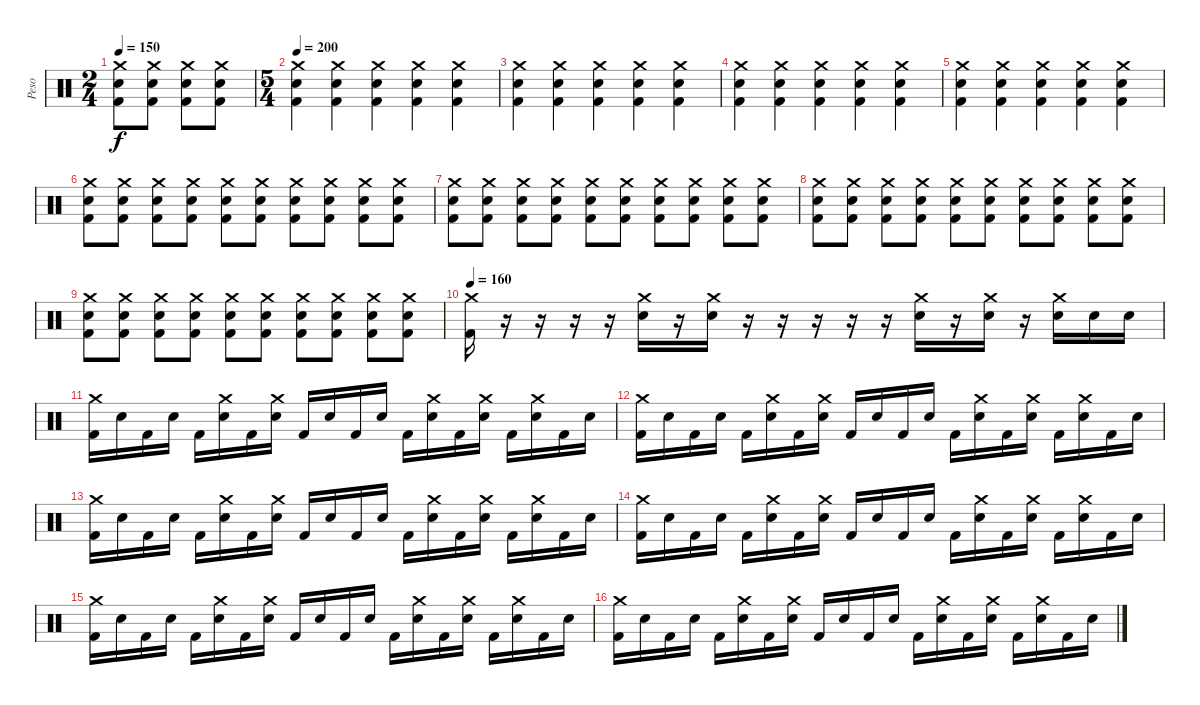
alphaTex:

\track ("Peso" "Peso") {instrument percussion}
\staff {score}
\articulation defaults
\ts (2 4)
\tempo 150
\clef neutral
\ks c
("Crash medium (hit)" "Electric Snare (hit)" "Kick (hit) 2").8{dy f} ("Crash medium (hit)" "Electric Snare (hit)" "Kick (hit) 2").8 ("Crash medium (hit)" "Electric Snare (hit)" "Kick (hit) 2").8 ("Crash medium (hit)" "Electric Snare (hit)" "Kick (hit) 2").8 |
\ts (5 4)
\tempo 200
("Crash medium (hit)" "Electric Snare (hit)" "Kick (hit) 2").4 ("Crash medium (hit)" "Electric Snare (hit)" "Kick (hit) 2").4 ("Crash medium (hit)" "Electric Snare (hit)" "Kick (hit) 2").4 ("Crash medium (hit)" "Electric Snare (hit)" "Kick (hit) 2").4 ("Crash medium (hit)" "Electric Snare (hit)" "Kick (hit) 2").4 |
("Crash medium (hit)" "Electric Snare (hit)" "Kick (hit) 2").4 ("Crash medium (hit)" "Electric Snare (hit)" "Kick (hit) 2").4 ("Crash medium (hit)" "Electric Snare (hit)" "Kick (hit) 2").4 ("Crash medium (hit)" "Electric Snare (hit)" "Kick (hit) 2").4 ("Crash medium (hit)" "Electric Snare (hit)" "Kick (hit) 2").4 |
("Crash medium (hit)" "Electric Snare (hit)" "Kick (hit) 2").4 ("Crash medium (hit)" "Electric Snare (hit)" "Kick (hit) 2").4 ("Crash medium (hit)" "Electric Snare (hit)" "Kick (hit) 2").4 ("Crash medium (hit)" "Electric Snare (hit)" "Kick (hit) 2").4 ("Crash medium (hit)" "Electric Snare (hit)" "Kick (hit) 2").4 |
("Crash medium (hit)" "Electric Snare (hit)" "Kick (hit) 2").4 ("Crash medium (hit)" "Electric Snare (hit)" "Kick (hit) 2").4 ("Crash medium (hit)" "Electric Snare (hit)" "Kick (hit) 2").4 ("Crash medium (hit)" "Electric Snare (hit)" "Kick (hit) 2").4 ("Crash medium (hit)" "Electric Snare (hit)" "Kick (hit) 2").4 |
("Crash medium (hit)" "Electric Snare (hit)" "Kick (hit) 2").8 ("Crash medium (hit)" "Electric Snare (hit)" "Kick (hit) 2").8 ("Crash medium (hit)" "Electric Snare (hit)" "Kick (hit) 2").8 ("Crash medium (hit)" "Electric Snare (hit)" "Kick (hit) 2").8 ("Crash medium (hit)" "Electric Snare (hit)" "Kick (hit) 2").8 ("Crash medium (hit)" "Electric Snare (hit)" "Kick (hit) 2").8 ("Crash medium (hit)" "Electric Snare (hit)" "Kick (hit) 2").8 ("Crash medium (hit)" "Electric Snare (hit)" "Kick (hit) 2").8 ("Crash medium (hit)" "Electric Snare (hit)" "Kick (hit) 2").8 ("Crash medium (hit)" "Electric Snare (hit)" "Kick (hit) 2").8 |
("Crash medium (hit)" "Electric Snare (hit)" "Kick (hit) 2").8 ("Crash medium (hit)" "Electric Snare (hit)" "Kick (hit) 2").8 ("Crash medium (hit)" "Electric Snare (hit)" "Kick (hit) 2").8 ("Crash medium (hit)" "Electric Snare (hit)" "Kick (hit) 2").8 ("Crash medium (hit)" "Electric Snare (hit)" "Kick (hit) 2").8 ("Crash medium (hit)" "Electric Snare (hit)" "Kick (hit) 2").8 ("Crash medium (hit)" "Electric Snare (hit)" "Kick (hit) 2").8 ("Crash medium (hit)" "Electric Snare (hit)" "Kick (hit) 2").8 ("Crash medium (hit)" "Electric Snare (hit)" "Kick (hit) 2").8 ("Crash medium (hit)" "Electric Snare (hit)" "Kick (hit) 2").8 |
("Crash medium (hit)" "Electric Snare (hit)" "Kick (hit) 2").8 ("Crash medium (hit)" "Electric Snare (hit)" "Kick (hit) 2").8 ("Crash medium (hit)" "Electric Snare (hit)" "Kick (hit) 2").8 ("Crash medium (hit)" "Electric Snare (hit)" "Kick (hit) 2").8 ("Crash medium (hit)" "Electric Snare (hit)" "Kick (hit) 2").8 ("Crash medium (hit)" "Electric Snare (hit)" "Kick (hit) 2").8 ("Crash medium (hit)" "Electric Snare (hit)" "Kick (hit) 2").8 ("Crash medium (hit)" "Electric Snare (hit)" "Kick (hit) 2").8 ("Crash medium (hit)" "Electric Snare (hit)" "Kick (hit) 2").8 ("Crash medium (hit)" "Electric Snare (hit)" "Kick (hit) 2").8 |
("Crash medium (hit)" "Electric Snare (hit)" "Kick (hit) 2").8 ("Crash medium (hit)" "Electric Snare (hit)" "Kick (hit) 2").8 ("Crash medium (hit)" "Electric Snare (hit)" "Kick (hit) 2").8 ("Crash medium (hit)" "Electric Snare (hit)" "Kick (hit) 2").8 ("Crash medium (hit)" "Electric Snare (hit)" "Kick (hit) 2").8 ("Crash medium (hit)" "Electric Snare (hit)" "Kick (hit) 2").8 ("Crash medium (hit)" "Electric Snare (hit)" "Kick (hit) 2").8 ("Crash medium (hit)" "Electric Snare (hit)" "Kick (hit) 2").8 ("Crash medium (hit)" "Electric Snare (hit)" "Kick (hit) 2").8 ("Crash medium (hit)" "Electric Snare (hit)" "Kick (hit) 2").8 |
\tempo 160
("Crash medium (hit)" "Kick (hit) 2").16 r.16 r.16 r.16 r.16 ("Crash medium (hit)" "Electric Snare (hit)").16 r.16 ("Crash medium (hit)" "Electric Snare (hit)").16 r.16 r.16 r.16 r.16 r.16 ("Crash medium (hit)" "Electric Snare (hit)").16 r.16 ("Crash medium (hit)" "Electric Snare (hit)").16 r.16 ("Crash medium (hit)" "Electric Snare (hit)").16 "Electric Snare (hit)".16 "Electric Snare (hit)".16 |
("Crash medium (hit)" "Kick (hit) 2").16 "Electric Snare (hit)".16 "Kick (hit) 2".16 "Electric Snare (hit)".16 "Kick (hit) 2".16 ("Crash medium (hit)" "Electric Snare (hit)").16 "Kick (hit) 2".16 ("Crash medium (hit)" "Electric Snare (hit)").16 "Kick (hit) 2".16 "Electric Snare (hit)".16 "Kick (hit) 2".16 "Electric Snare (hit)".16 "Kick (hit) 2".16 ("Crash medium (hit)" "Electric Snare (hit)").16 "Kick (hit) 2".16 ("Crash medium (hit)" "Electric Snare (hit)").16 "Kick (hit) 2".16 ("Crash medium (hit)" "Electric Snare (hit)").16 "Kick (hit) 2".16 "Electric Snare (hit)".16 |
("Crash medium (hit)" "Kick (hit) 2").16 "Electric Snare (hit)".16 "Kick (hit) 2".16 "Electric Snare (hit)".16 "Kick (hit) 2".16 ("Crash medium (hit)" "Electric Snare (hit)").16 "Kick (hit) 2".16 ("Crash medium (hit)" "Electric Snare (hit)").16 "Kick (hit) 2".16 "Electric Snare (hit)".16 "Kick (hit) 2".16 "Electric Snare (hit)".16 "Kick (hit) 2".16 ("Crash medium (hit)" "Electric Snare (hit)").16 "Kick (hit) 2".16 ("Crash medium (hit)" "Electric Snare (hit)").16 "Kick (hit) 2".16 ("Crash medium (hit)" "Electric Snare (hit)").16 "Kick (hit) 2".16 "Electric Snare (hit)".16 |
("Crash medium (hit)" "Kick (hit) 2").16 "Electric Snare (hit)".16 "Kick (hit) 2".16 "Electric Snare (hit)".16 "Kick (hit) 2".16 ("Crash medium (hit)" "Electric Snare (hit)").16 "Kick (hit) 2".16 ("Crash medium (hit)" "Electric Snare (hit)").16 "Kick (hit) 2".16 "Electric Snare (hit)".16 "Kick (hit) 2".16 "Electric Snare (hit)".16 "Kick (hit) 2".16 ("Crash medium (hit)" "Electric Snare (hit)").16 "Kick (hit) 2".16 ("Crash medium (hit)" "Electric Snare (hit)").16 "Kick (hit) 2".16 ("Crash medium (hit)" "Electric Snare (hit)").16 "Kick (hit) 2".16 "Electric Snare (hit)".16 |
("Crash medium (hit)" "Kick (hit) 2").16 "Electric Snare (hit)".16 "Kick (hit) 2".16 "Electric Snare (hit)".16 "Kick (hit) 2".16 ("Crash medium (hit)" "Electric Snare (hit)").16 "Kick (hit) 2".16 ("Crash medium (hit)" "Electric Snare (hit)").16 "Kick (hit) 2".16 "Electric Snare (hit)".16 "Kick (hit) 2".16 "Electric Snare (hit)".16 "Kick (hit) 2".16 ("Crash medium (hit)" "Electric Snare (hit)").16 "Kick (hit) 2".16 ("Crash medium (hit)" "Electric Snare (hit)").16 "Kick (hit) 2".16 ("Crash medium (hit)" "Electric Snare (hit)").16 "Kick (hit) 2".16 "Electric Snare (hit)".16 |
("Crash medium (hit)" "Kick (hit) 2").16 "Electric Snare (hit)".16 "Kick (hit) 2".16 "Electric Snare (hit)".16 "Kick (hit) 2".16 ("Crash medium (hit)" "Electric Snare (hit)").16 "Kick (hit) 2".16 ("Crash medium (hit)" "Electric Snare (hit)").16 "Kick (hit) 2".16 "Electric Snare (hit)".16 "Kick (hit) 2".16 "Electric Snare (hit)".16 "Kick (hit) 2".16 ("Crash medium (hit)" "Electric Snare (hit)").16 "Kick (hit) 2".16 ("Crash medium (hit)" "Electric Snare (hit)").16 "Kick (hit) 2".16 ("Crash medium (hit)" "Electric Snare (hit)").16 "Kick (hit) 2".16 "Electric Snare (hit)".16 |
("Crash medium (hit)" "Kick (hit) 2").16 "Electric Snare (hit)".16 "Kick (hit) 2".16 "Electric Snare (hit)".16 "Kick (hit) 2".16 ("Crash medium (hit)" "Electric Snare (hit)").16 "Kick (hit) 2".16 ("Crash medium (hit)" "Electric Snare (hit)").16 "Kick (hit) 2".16 "Electric Snare (hit)".16 "Kick (hit) 2".16 "Electric Snare (hit)".16 "Kick (hit) 2".16 ("Crash medium (hit)" "Electric Snare (hit)").16 "Kick (hit) 2".16 ("Crash medium (hit)" "Electric Snare (hit)").16 "Kick (hit) 2".16 ("Crash medium (hit)" "Electric Snare (hit)").16 "Kick (hit) 2".16 "Electric Snare (hit)".16
